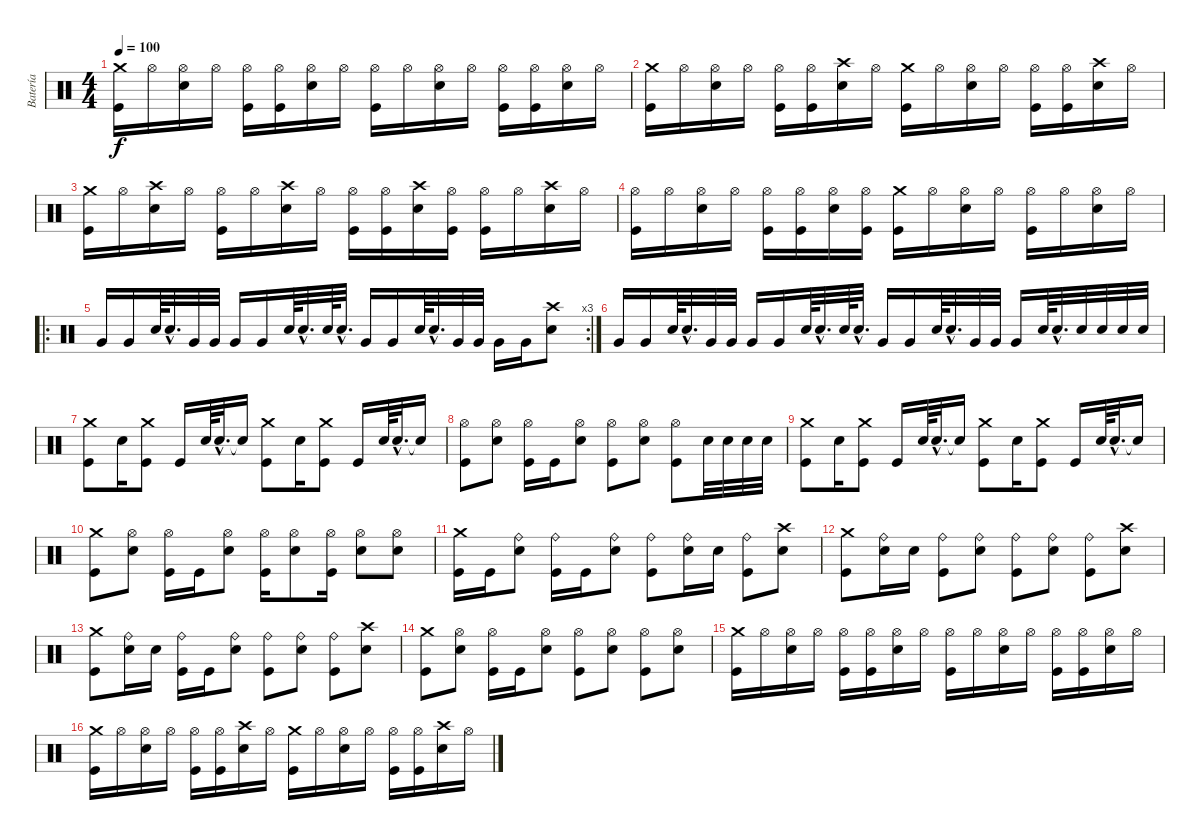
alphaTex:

\track ("Batería" "Batería") {instrument percussion}
\staff {score}
\articulation defaults
\ts (4 4)
\tempo 100
\clef neutral
\ks c
("Crash medium (hit)" "Kick (hit)").16{dy f} "Hi-Hat (open)".16 ("Hi-Hat (open)" "Snare (hit) 2").16 "Hi-Hat (open)".16 ("Hi-Hat (open)" "Kick (hit)").16 ("Hi-Hat (open)" "Kick (hit)").16 ("Hi-Hat (open)" "Snare (hit) 2").16 "Hi-Hat (open)".16 ("Hi-Hat (open)" "Kick (hit)").16 "Hi-Hat (open)".16 ("Hi-Hat (open)" "Snare (hit) 2").16 "Hi-Hat (open)".16 ("Hi-Hat (open)" "Kick (hit)").16 ("Hi-Hat (open)" "Kick (hit)").16 ("Hi-Hat (open)" "Snare (hit) 2").16 "Hi-Hat (open)".16 |
("Crash medium (hit)" "Kick (hit)").16 "Hi-Hat (open)".16 ("Hi-Hat (open)" "Snare (hit) 2").16 "Hi-Hat (open)".16 ("Hi-Hat (open)" "Kick (hit)").16 ("Hi-Hat (open)" "Kick (hit)").16 ("Crash high (hit)" "Snare (hit) 2").16 "Hi-Hat (open)".16 ("Crash medium (hit)" "Kick (hit)").16 "Hi-Hat (open)".16 ("Hi-Hat (open)" "Snare (hit) 2").16 "Hi-Hat (open)".16 ("Hi-Hat (open)" "Kick (hit)").16 ("Hi-Hat (open)" "Kick (hit)").16 ("Crash high (hit)" "Snare (hit) 2").16 "Hi-Hat (open)".16 |
("Crash medium (hit)" "Kick (hit)").16 "Hi-Hat (open)".16 ("Crash high (hit)" "Snare (hit) 2").16 "Hi-Hat (open)".16 ("Hi-Hat (open)" "Kick (hit)").16 "Hi-Hat (open)".16 ("Crash high (hit)" "Snare (hit) 2").16 "Hi-Hat (open)".16 ("Hi-Hat (open)" "Kick (hit)").16 ("Hi-Hat (open)" "Kick (hit)").16 ("Crash high (hit)" "Snare (hit) 2").16 ("Hi-Hat (open)" "Kick (hit)").16 ("Hi-Hat (open)" "Kick (hit)").16 "Hi-Hat (open)".16 ("Crash high (hit)" "Snare (hit) 2").16 "Hi-Hat (open)".16 |
("Hi-Hat (open)" "Kick (hit)").16 "Hi-Hat (open)".16 ("Hi-Hat (open)" "Snare (hit) 2").16 "Hi-Hat (open)".16 ("Hi-Hat (open)" "Kick (hit)").16 ("Hi-Hat (open)" "Kick (hit)").16 ("Hi-Hat (open)" "Snare (hit) 2").16 ("Hi-Hat (open)" "Kick (hit)").16 ("Crash medium (hit)" "Kick (hit)").16 "Hi-Hat (open)".16 ("Hi-Hat (open)" "Snare (hit) 2").16 "Hi-Hat (open)".16 ("Hi-Hat (open)" "Kick (hit)").16 "Hi-Hat (open)".16 ("Hi-Hat (open)" "Snare (hit) 2").16 "Hi-Hat (open)".16 |
\ro
\rc 3 "Very Low Tom (hit)".16 "Very Low Tom (hit)".16 "Snare (hit) 2".64 "Snare (hit) 2"{hac}.32{d} "Very Low Tom (hit)".32 "Very Low Tom (hit)".32 "Very Low Tom (hit)".16 "Very Low Tom (hit)".16 "Snare (hit) 2".64 "Snare (hit) 2"{hac}.32{d} "Snare (hit) 2".64 "Snare (hit) 2"{hac}.32{d} "Very Low Tom (hit)".16 "Very Low Tom (hit)".16 "Snare (hit) 2".64 "Snare (hit) 2"{hac}.32{d} "Very Low Tom (hit)".32 "Very Low Tom (hit)".32 "Very Low Tom (hit)".16 "Very Low Tom (hit)".16
("Crash high (hit)" "Snare (hit) 2").8 |
"Very Low Tom (hit)".16 "Very Low Tom (hit)".16 "Snare (hit) 2".64 "Snare (hit) 2"{hac}.32{d} "Very Low Tom (hit)".32 "Very Low Tom (hit)".32 "Very Low Tom (hit)".16 "Very Low Tom (hit)".16 "Snare (hit) 2".64 "Snare (hit) 2"{hac}.32{d} "Snare (hit) 2".64 "Snare (hit) 2"{hac}.32{d} "Very Low Tom (hit)".16 "Very Low Tom (hit)".16 "Snare (hit) 2".64 "Snare (hit) 2"{hac}.32{d} "Very Low Tom (hit)".32 "Very Low Tom (hit)".32 "Very Low Tom (hit)".16 "Snare (hit) 2".64 "Snare (hit) 2"{hac}.32{d} "Snare (hit) 2".32 "Snare (hit) 2".32 "Snare (hit) 2".32 "Snare (hit) 2".32 |
("Crash medium (hit)" "Kick (hit)").8 "Snare (hit) 2".16 ("Crash medium (hit)" "Kick (hit)").8 "Kick (hit)".16 "Snare (hit) 2".64 "Snare (hit) 2"{hac}.32{d} "Snare (hit)"{t}.16 ("Crash medium (hit)" "Kick (hit)").8 "Snare (hit) 2".16 ("Crash medium (hit)" "Kick (hit)").8 "Kick (hit)".16 "Snare (hit) 2".64 "Snare (hit) 2"{hac}.32{d} "Snare (hit)"{t}.16 |
("Hi-Hat (open)" "Kick (hit)").8 ("Hi-Hat (open)" "Snare (hit) 2").8 ("Hi-Hat (open)" "Kick (hit)").16 "Kick (hit)".16 ("Hi-Hat (open)" "Snare (hit) 2").8 ("Hi-Hat (open)" "Kick (hit)").8 ("Hi-Hat (open)" "Snare (hit) 2").8 ("Hi-Hat (open)" "Kick (hit)").8 "Snare (hit) 2".32 "Snare (hit) 2".32 "Snare (hit) 2".32 "Snare (hit) 2".32 |
("Crash medium (hit)" "Kick (hit)").8 "Snare (hit) 2".16 ("Crash medium (hit)" "Kick (hit)").8 "Kick (hit)".16 "Snare (hit) 2".64 "Snare (hit) 2"{hac}.32{d} "Snare (hit)"{t}.16 ("Crash medium (hit)" "Kick (hit)").8 "Snare (hit) 2".16 ("Crash medium (hit)" "Kick (hit)").8 "Kick (hit)".16 "Snare (hit) 2".64 "Snare (hit) 2"{hac}.32{d} "Snare (hit)"{t}.16 |
("Crash medium (hit)" "Kick (hit)").8 ("Hi-Hat (open)" "Snare (hit) 2").8 ("Hi-Hat (open)" "Kick (hit)").16 "Kick (hit)".16 ("Hi-Hat (open)" "Snare (hit) 2").8 ("Hi-Hat (open)" "Kick (hit)").16 ("Hi-Hat (open)" "Snare (hit) 2").8 ("Hi-Hat (open)" "Kick (hit)").16 ("Hi-Hat (open)" "Snare (hit) 2").8 ("Hi-Hat (open)" "Snare (hit) 2").8 |
("Crash medium (hit)" "Kick (hit)").16 "Kick (hit)".16 ("Ride (bell)" "Snare (hit) 2").8 ("Ride (bell)" "Kick (hit)").16 "Kick (hit)".16 ("Ride (bell)" "Snare (hit) 2").8 ("Ride (bell)" "Kick (hit)").8 ("Ride (bell)" "Snare (hit) 2").16 "Snare (hit) 2".16 ("Ride (bell)" "Kick (hit)").8 ("Crash high (hit)" "Snare (hit) 2").8 |
("Crash medium (hit)" "Kick (hit)").8 ("Ride (bell)" "Snare (hit) 2").16 "Snare (hit) 2".16 ("Ride (bell)" "Kick (hit)").8 ("Ride (bell)" "Snare (hit) 2").8 ("Ride (bell)" "Kick (hit)").8 ("Ride (bell)" "Snare (hit) 2").8 ("Ride (bell)" "Kick (hit)").8 ("Crash high (hit)" "Snare (hit) 2").8 |
("Crash medium (hit)" "Kick (hit)").8 ("Ride (bell)" "Snare (hit) 2").16 "Snare (hit) 2".16 ("Ride (bell)" "Kick (hit)").16 "Kick (hit)".16 ("Ride (bell)" "Snare (hit) 2").8 ("Ride (bell)" "Kick (hit)").8 ("Ride (bell)" "Snare (hit) 2").8 ("Ride (bell)" "Kick (hit)").8 ("Crash high (hit)" "Snare (hit) 2").8 |
("Crash medium (hit)" "Kick (hit)").8 ("Hi-Hat (open)" "Snare (hit) 2").8 ("Hi-Hat (open)" "Kick (hit)").16 "Kick (hit)".16 ("Hi-Hat (open)" "Snare (hit) 2").8 ("Hi-Hat (open)" "Kick (hit)").8 ("Hi-Hat (open)" "Snare (hit) 2").8 ("Hi-Hat (open)" "Kick (hit)").8 ("Hi-Hat (open)" "Snare (hit) 2").8 |
("Crash medium (hit)" "Kick (hit)").16 "Hi-Hat (open)".16 ("Hi-Hat (open)" "Snare (hit) 2").16 "Hi-Hat (open)".16 ("Hi-Hat (open)" "Kick (hit)").16 ("Hi-Hat (open)" "Kick (hit)").16 ("Hi-Hat (open)" "Snare (hit) 2").16 "Hi-Hat (open)".16 ("Hi-Hat (open)" "Kick (hit)").16 "Hi-Hat (open)".16 ("Hi-Hat (open)" "Snare (hit) 2").16 "Hi-Hat (open)".16 ("Hi-Hat (open)" "Kick (hit)").16 ("Hi-Hat (open)" "Kick (hit)").16 ("Hi-Hat (open)" "Snare (hit) 2").16 "Hi-Hat (open)".16 |
("Crash medium (hit)" "Kick (hit)").16 "Hi-Hat (open)".16 ("Hi-Hat (open)" "Snare (hit) 2").16 "Hi-Hat (open)".16 ("Hi-Hat (open)" "Kick (hit)").16 ("Hi-Hat (open)" "Kick (hit)").16 ("Crash high (hit)" "Snare (hit) 2").16 "Hi-Hat (open)".16 ("Crash medium (hit)" "Kick (hit)").16 "Hi-Hat (open)".16 ("Hi-Hat (open)" "Snare (hit) 2").16 "Hi-Hat (open)".16 ("Hi-Hat (open)" "Kick (hit)").16 ("Hi-Hat (open)" "Kick (hit)").16 ("Crash high (hit)" "Snare (hit) 2").16 "Hi-Hat (open)".16
